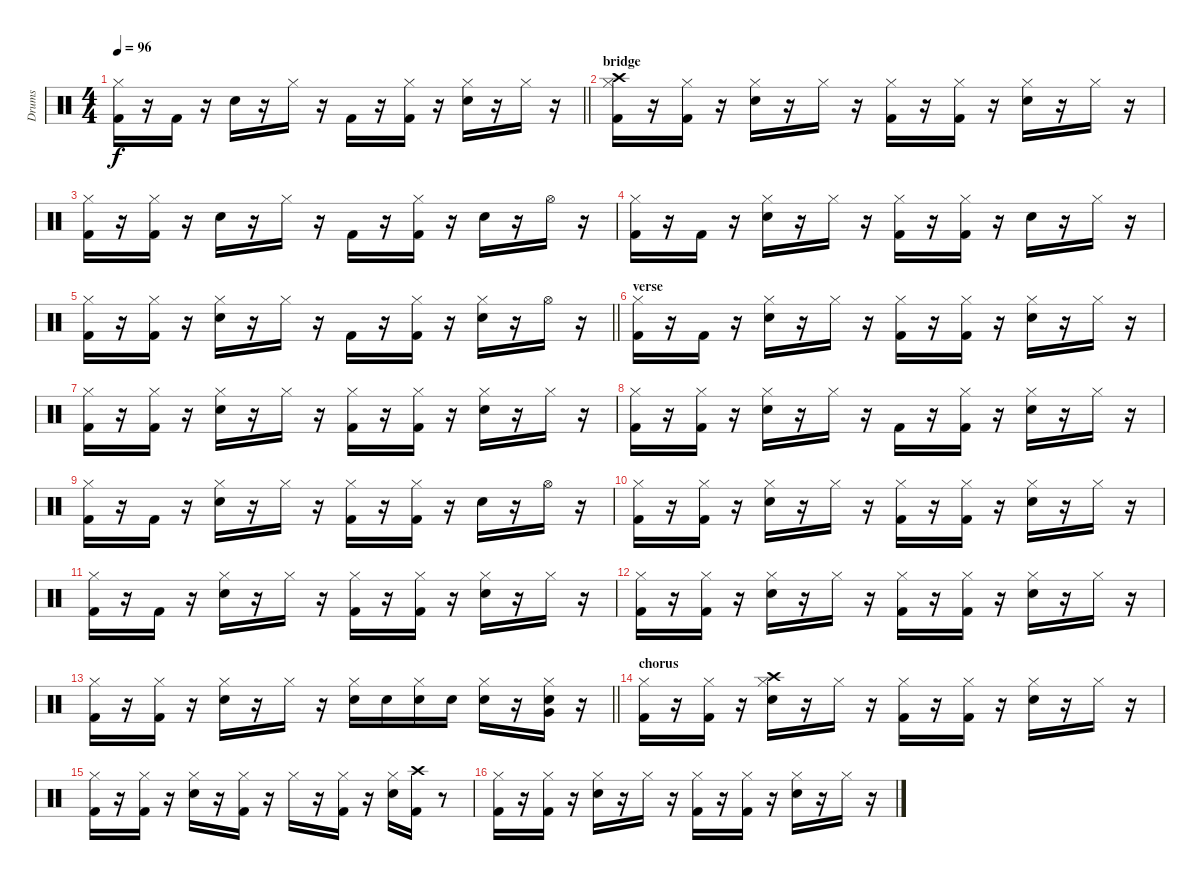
\track ("Drums" "Drums") {instrument percussion}
\staff {score}
\articulation defaults
\ts (4 4)
\tempo 96
\clef neutral
\barLineRight lightlight
\ks c
("Kick (hit) 2" "Hi-Hat (closed)").16{dy f} r.16 "Kick (hit) 2".16 r.16 "Snare (hit) 2".16 r.16 "Hi-Hat (closed)".16 r.16 "Kick (hit) 2".16 r.16 ("Kick (hit) 2" "Hi-Hat (closed)").16 r.16 ("Snare (hit) 2" "Hi-Hat (closed)").16 r.16 "Hi-Hat (closed)".16 r.16 |
\section ("" "bridge")
("Kick (hit) 2" "Hi-Hat (closed)" "Crash high (hit)").16 r.16 ("Kick (hit) 2" "Hi-Hat (closed)").16 r.16 ("Snare (hit) 2" "Hi-Hat (closed)").16 r.16 "Hi-Hat (closed)".16 r.16 ("Kick (hit) 2" "Hi-Hat (closed)").16 r.16 ("Kick (hit) 2" "Hi-Hat (closed)").16 r.16 ("Snare (hit) 2" "Hi-Hat (closed)").16 r.16 "Hi-Hat (closed)".16 r.16 |
("Kick (hit) 2" "Hi-Hat (closed)").16 r.16 ("Kick (hit) 2" "Hi-Hat (closed)").16 r.16 "Snare (hit) 2".16 r.16 "Hi-Hat (closed)".16 r.16 "Kick (hit) 2".16 r.16 ("Kick (hit) 2" "Hi-Hat (closed)").16 r.16 "Snare (hit) 2".16 r.16 "Hi-Hat (open)".16 r.16 |
("Kick (hit) 2" "Hi-Hat (closed)").16 r.16 "Kick (hit) 2".16 r.16 ("Snare (hit) 2" "Hi-Hat (closed)").16 r.16 "Hi-Hat (closed)".16 r.16 ("Kick (hit) 2" "Hi-Hat (closed)").16 r.16 ("Kick (hit) 2" "Hi-Hat (closed)").16 r.16 "Snare (hit) 2".16 r.16 "Hi-Hat (closed)".16 r.16 |
\barLineRight lightlight
("Kick (hit) 2" "Hi-Hat (closed)").16 r.16 ("Kick (hit) 2" "Hi-Hat (closed)").16 r.16 ("Snare (hit) 2" "Hi-Hat (closed)").16 r.16 "Hi-Hat (closed)".16 r.16 "Kick (hit) 2".16 r.16 ("Kick (hit) 2" "Hi-Hat (closed)").16 r.16 ("Snare (hit) 2" "Hi-Hat (closed)").16 r.16 "Hi-Hat (open)".16 r.16 |
\section ("" "verse")
("Kick (hit) 2" "Hi-Hat (closed)").16 r.16 "Kick (hit) 2".16 r.16 ("Snare (hit) 2" "Hi-Hat (closed)").16 r.16 "Hi-Hat (closed)".16 r.16 ("Kick (hit) 2" "Hi-Hat (closed)").16 r.16 ("Kick (hit) 2" "Hi-Hat (closed)").16 r.16 ("Snare (hit) 2" "Hi-Hat (closed)").16 r.16 "Hi-Hat (closed)".16 r.16 |
("Kick (hit) 2" "Hi-Hat (closed)").16 r.16 ("Kick (hit) 2" "Hi-Hat (closed)").16 r.16 ("Snare (hit) 2" "Hi-Hat (closed)").16 r.16 "Hi-Hat (closed)".16 r.16 ("Kick (hit) 2" "Hi-Hat (closed)").16 r.16 ("Kick (hit) 2" "Hi-Hat (closed)").16 r.16 ("Snare (hit) 2" "Hi-Hat (closed)").16 r.16 "Hi-Hat (closed)".16 r.16 |
("Kick (hit) 2" "Hi-Hat (closed)").16 r.16 ("Kick (hit) 2" "Hi-Hat (closed)").16 r.16 ("Snare (hit) 2" "Hi-Hat (closed)").16 r.16 "Hi-Hat (closed)".16 r.16 "Kick (hit) 2".16 r.16 ("Kick (hit) 2" "Hi-Hat (closed)").16 r.16 ("Snare (hit) 2" "Hi-Hat (closed)").16 r.16 "Hi-Hat (closed)".16 r.16 |
("Kick (hit) 2" "Hi-Hat (closed)").16 r.16 "Kick (hit) 2".16 r.16 ("Snare (hit) 2" "Hi-Hat (closed)").16 r.16 "Hi-Hat (closed)".16 r.16 ("Kick (hit) 2" "Hi-Hat (closed)").16 r.16 ("Kick (hit) 2" "Hi-Hat (closed)").16 r.16 "Snare (hit) 2".16 r.16 "Hi-Hat (open)".16 r.16 |
("Kick (hit) 2" "Hi-Hat (closed)").16 r.16 ("Kick (hit) 2" "Hi-Hat (closed)").16 r.16 ("Snare (hit) 2" "Hi-Hat (closed)").16 r.16 "Hi-Hat (closed)".16 r.16 ("Kick (hit) 2" "Hi-Hat (closed)").16 r.16 ("Kick (hit) 2" "Hi-Hat (closed)").16 r.16 ("Snare (hit) 2" "Hi-Hat (closed)").16 r.16 "Hi-Hat (closed)".16 r.16 |
("Kick (hit) 2" "Hi-Hat (closed)").16 r.16 "Kick (hit) 2".16 r.16 ("Snare (hit) 2" "Hi-Hat (closed)").16 r.16 "Hi-Hat (closed)".16 r.16 ("Kick (hit) 2" "Hi-Hat (closed)").16 r.16 ("Kick (hit) 2" "Hi-Hat (closed)").16 r.16 ("Snare (hit) 2" "Hi-Hat (closed)").16 r.16 "Hi-Hat (closed)".16 r.16 |
("Kick (hit) 2" "Hi-Hat (closed)").16 r.16 ("Kick (hit) 2" "Hi-Hat (closed)").16 r.16 ("Snare (hit) 2" "Hi-Hat (closed)").16 r.16 "Hi-Hat (closed)".16 r.16 ("Kick (hit) 2" "Hi-Hat (closed)").16 r.16 ("Kick (hit) 2" "Hi-Hat (closed)").16 r.16 ("Snare (hit) 2" "Hi-Hat (closed)").16 r.16 "Hi-Hat (closed)".16 r.16 |
\barLineRight lightlight
("Kick (hit) 2" "Hi-Hat (closed)").16 r.16 ("Kick (hit) 2" "Hi-Hat (closed)").16 r.16 ("Snare (hit) 2" "Hi-Hat (closed)").16 r.16 "Hi-Hat (closed)".16 r.16 ("Snare (hit) 2" "Hi-Hat (closed)").16 "Snare (hit) 2".16 ("Snare (hit) 2" "Hi-Hat (closed)").16 "Snare (hit) 2".16 ("Snare (hit) 2" "Hi-Hat (closed)").16 r.16 ("Snare (hit) 2" "Hi-Hat (closed)" "Very Low Tom (hit)").16 r.16 |
\section ("" "chorus")
("Kick (hit) 2" "Hi-Hat (closed)").16 r.16 ("Kick (hit) 2" "Hi-Hat (closed)").16 r.16 ("Snare (hit) 2" "Hi-Hat (closed)" "Crash high (hit)").16 r.16 "Hi-Hat (closed)".16 r.16 ("Kick (hit) 2" "Hi-Hat (closed)").16 r.16 ("Kick (hit) 2" "Hi-Hat (closed)").16 r.16 ("Snare (hit) 2" "Hi-Hat (closed)").16 r.16 "Hi-Hat (closed)".16 r.16 |
("Kick (hit) 2" "Hi-Hat (closed)").16 r.16 ("Kick (hit) 2" "Hi-Hat (closed)").16 r.16 ("Snare (hit) 2" "Hi-Hat (closed)").16 r.16 ("Kick (hit) 2" "Hi-Hat (closed)").16 r.16 "Hi-Hat (closed)".16 r.16 ("Kick (hit) 2" "Hi-Hat (closed)").16 r.16 ("Snare (hit) 2" "Hi-Hat (closed)").16 ("Kick (hit) 2" "Crash high (hit)").16 r.8 |
("Kick (hit) 2" "Hi-Hat (closed)").16 r.16 ("Kick (hit) 2" "Hi-Hat (closed)").16 r.16 ("Snare (hit) 2" "Hi-Hat (closed)").16 r.16 "Hi-Hat (closed)".16 r.16 ("Kick (hit) 2" "Hi-Hat (closed)").16 r.16 ("Kick (hit) 2" "Hi-Hat (closed)").16 r.16 ("Snare (hit) 2" "Hi-Hat (closed)").16 r.16 "Hi-Hat (closed)".16 r.16
